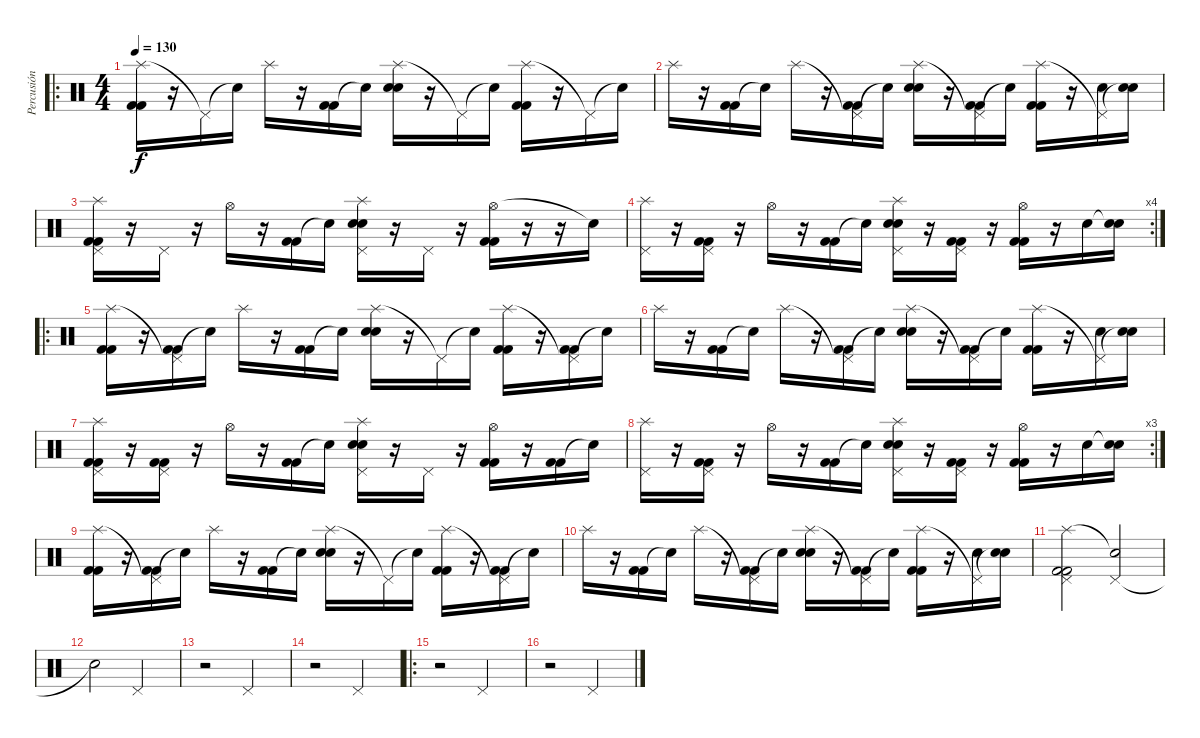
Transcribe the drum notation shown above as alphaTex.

\track ("Percusión" "Percusión") {instrument percussion}
\staff {score}
\articulation defaults
\ro
\ts (4 4)
\tempo 130
\clef neutral
\ks c
("Splash (hit)" "Kick (hit) 2" "Kick (hit) 2").16{dy f} r.16 "Pedal Hi-Hat (hit)"{t}.16 "Snare (hit)"{t}.16 "Splash (hit)".16 r.16 ("Kick (hit) 2" "Kick (hit) 2").16 "Snare (hit)"{t}.16 ("Splash (hit)" "Electric Snare (hit)" "Electric Snare (hit)").16 r.16 "Pedal Hi-Hat (hit)"{t}.16 "Snare (hit)"{t}.16 ("Splash (hit)" "Kick (hit) 2" "Kick (hit) 2").16 r.16 "Pedal Hi-Hat (hit)"{t}.16 "Snare (hit)"{t}.16 |
"Splash (hit)".16 r.16 ("Kick (hit) 2" "Kick (hit) 2").16 "Snare (hit)"{t}.16 "Splash (hit)".16 r.16 ("Pedal Hi-Hat (hit)"{t} "Kick (hit) 2" "Kick (hit) 2").16 "Snare (hit)"{t}.16 ("Splash (hit)" "Electric Snare (hit)" "Electric Snare (hit)").16 r.16 ("Pedal Hi-Hat (hit)"{t} "Kick (hit) 2" "Kick (hit) 2").16 "Snare (hit)"{t}.16 ("Splash (hit)" "Kick (hit) 2" "Kick (hit) 2").16 r.16 ("Pedal Hi-Hat (hit)"{t} "Electric Snare (hit)").16 ("Snare (hit)"{t} "Electric Snare (hit)").16 |
("Pedal Hi-Hat (hit)" "Splash (hit)" "Kick (hit) 2" "Kick (hit) 2").16 r.16 "Pedal Hi-Hat (hit)".16 r.16 "Hi-Hat (open)".16 r.16 ("Kick (hit) 2" "Kick (hit) 2").16 "Snare (hit)"{t}.16 ("Pedal Hi-Hat (hit)" "Splash (hit)" "Electric Snare (hit)" "Electric Snare (hit)").16 r.16 "Pedal Hi-Hat (hit)".16 r.16 ("Hi-Hat (open)" "Kick (hit) 2" "Kick (hit) 2").16 r.16 r.16 "Snare (hit)"{t}.16 |
\rc 4
("Pedal Hi-Hat (hit)" "Splash (hit)").16 r.16 ("Pedal Hi-Hat (hit)" "Kick (hit) 2" "Kick (hit) 2").16 r.16 "Hi-Hat (open)".16 r.16 ("Kick (hit) 2" "Kick (hit) 2").16 "Snare (hit)"{t}.16 ("Pedal Hi-Hat (hit)" "Splash (hit)" "Electric Snare (hit)" "Electric Snare (hit)").16 r.16 ("Pedal Hi-Hat (hit)" "Kick (hit) 2" "Kick (hit) 2").16 r.16 ("Hi-Hat (open)" "Kick (hit) 2" "Kick (hit) 2").16 r.16 "Electric Snare (hit)".16 ("Snare (hit)"{t} "Electric Snare (hit)").16 |
\ro
("Splash (hit)" "Kick (hit) 2" "Kick (hit) 2").16 r.16 ("Pedal Hi-Hat (hit)"{t} "Kick (hit) 2" "Kick (hit) 2").16 "Snare (hit)"{t}.16 "Splash (hit)".16 r.16 ("Kick (hit) 2" "Kick (hit) 2").16 "Snare (hit)"{t}.16 ("Splash (hit)" "Electric Snare (hit)" "Electric Snare (hit)").16 r.16 "Pedal Hi-Hat (hit)"{t}.16 "Snare (hit)"{t}.16 ("Splash (hit)" "Kick (hit) 2" "Kick (hit) 2").16 r.16 ("Pedal Hi-Hat (hit)"{t} "Kick (hit) 2" "Kick (hit) 2").16 "Snare (hit)"{t}.16 |
"Splash (hit)".16 r.16 ("Kick (hit) 2" "Kick (hit) 2").16 "Snare (hit)"{t}.16 "Splash (hit)".16 r.16 ("Pedal Hi-Hat (hit)"{t} "Kick (hit) 2" "Kick (hit) 2").16 "Snare (hit)"{t}.16 ("Splash (hit)" "Electric Snare (hit)" "Electric Snare (hit)").16 r.16 ("Pedal Hi-Hat (hit)"{t} "Kick (hit) 2" "Kick (hit) 2").16 "Snare (hit)"{t}.16 ("Splash (hit)" "Kick (hit) 2" "Kick (hit) 2").16 r.16 ("Pedal Hi-Hat (hit)"{t} "Electric Snare (hit)").16 ("Snare (hit)"{t} "Electric Snare (hit)").16 |
("Pedal Hi-Hat (hit)" "Splash (hit)" "Kick (hit) 2" "Kick (hit) 2").16 r.16 ("Pedal Hi-Hat (hit)" "Kick (hit) 2" "Kick (hit) 2").16 r.16 "Hi-Hat (open)".16 r.16 ("Kick (hit) 2" "Kick (hit) 2").16 "Snare (hit)"{t}.16 ("Pedal Hi-Hat (hit)" "Splash (hit)" "Electric Snare (hit)" "Electric Snare (hit)").16 r.16 "Pedal Hi-Hat (hit)".16 r.16 ("Hi-Hat (open)" "Kick (hit) 2" "Kick (hit) 2").16 r.16 ("Kick (hit) 2" "Kick (hit) 2").16 "Snare (hit)"{t}.16 |
\rc 3
("Pedal Hi-Hat (hit)" "Splash (hit)").16 r.16 ("Pedal Hi-Hat (hit)" "Kick (hit) 2" "Kick (hit) 2").16 r.16 "Hi-Hat (open)".16 r.16 ("Kick (hit) 2" "Kick (hit) 2").16 "Snare (hit)"{t}.16 ("Pedal Hi-Hat (hit)" "Splash (hit)" "Electric Snare (hit)" "Electric Snare (hit)").16 r.16 ("Pedal Hi-Hat (hit)" "Kick (hit) 2" "Kick (hit) 2").16 r.16 ("Hi-Hat (open)" "Kick (hit) 2" "Kick (hit) 2").16 r.16 "Electric Snare (hit)".16 ("Snare (hit)"{t} "Electric Snare (hit)").16 |
("Splash (hit)" "Kick (hit) 2" "Kick (hit) 2").16 r.16 ("Pedal Hi-Hat (hit)"{t} "Kick (hit) 2" "Kick (hit) 2").16 "Snare (hit)"{t}.16 "Splash (hit)".16 r.16 ("Kick (hit) 2" "Kick (hit) 2").16 "Snare (hit)"{t}.16 ("Splash (hit)" "Electric Snare (hit)" "Electric Snare (hit)").16 r.16 "Pedal Hi-Hat (hit)"{t}.16 "Snare (hit)"{t}.16 ("Splash (hit)" "Kick (hit) 2" "Kick (hit) 2").16 r.16 ("Pedal Hi-Hat (hit)"{t} "Kick (hit) 2" "Kick (hit) 2").16 "Snare (hit)"{t}.16 |
"Splash (hit)".16 r.16 ("Kick (hit) 2" "Kick (hit) 2").16 "Snare (hit)"{t}.16 "Splash (hit)".16 r.16 ("Pedal Hi-Hat (hit)"{t} "Kick (hit) 2" "Kick (hit) 2").16 "Snare (hit)"{t}.16 ("Splash (hit)" "Electric Snare (hit)" "Electric Snare (hit)").16 r.16 ("Pedal Hi-Hat (hit)"{t} "Kick (hit) 2" "Kick (hit) 2").16 "Snare (hit)"{t}.16 ("Splash (hit)" "Kick (hit) 2" "Kick (hit) 2").16 r.16 ("Pedal Hi-Hat (hit)"{t} "Electric Snare (hit)").16 ("Snare (hit)"{t} "Electric Snare (hit)").16 |
("Pedal Hi-Hat (hit)" "Splash (hit)" "Kick (hit) 2" "Kick (hit) 2").2 ("Pedal Hi-Hat (hit)" "Snare (hit)"{t}).2 |
"Snare (hit)"{t}.2 "Pedal Hi-Hat (hit)".2 |
r.2 "Pedal Hi-Hat (hit)".2 |
r.2 "Pedal Hi-Hat (hit)".2 |
\ro
r.2 "Pedal Hi-Hat (hit)".2 |
r.2 "Pedal Hi-Hat (hit)".2
